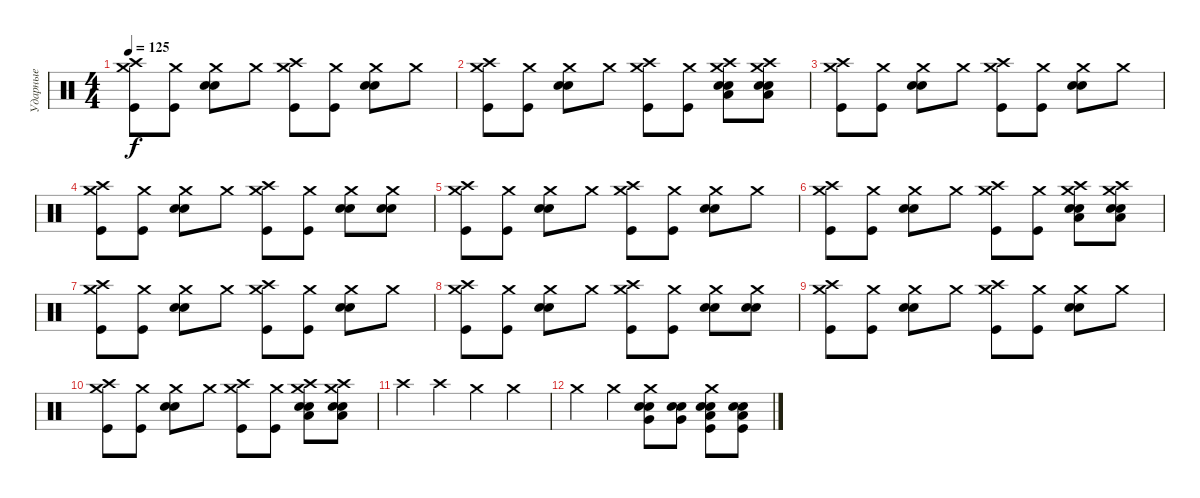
\track ("Ударные" "Ударные") {instrument percussion}
\staff {score}
\articulation defaults
\ts (4 4)
\tempo 125
\clef neutral
\ks c
("Crash medium (hit)" "Crash high (hit)" "Kick (hit)").8{dy f} ("Crash medium (hit)" "Kick (hit)").8 ("Crash medium (hit)" "Snare (hit) 2" "Snare (hit) 2").8 "Crash medium (hit)".8 ("Crash medium (hit)" "Crash high (hit)" "Kick (hit)").8 ("Crash medium (hit)" "Kick (hit)").8 ("Crash medium (hit)" "Snare (hit) 2" "Snare (hit) 2").8 "Crash medium (hit)".8 |
("Crash medium (hit)" "Crash high (hit)" "Kick (hit)").8 ("Crash medium (hit)" "Kick (hit)").8 ("Crash medium (hit)" "Snare (hit) 2" "Snare (hit) 2").8 "Crash medium (hit)".8 ("Crash medium (hit)" "Crash high (hit)" "Kick (hit)").8 ("Crash medium (hit)" "Kick (hit)").8 ("Crash medium (hit)" "Crash high (hit)" "Low Floor Tom (hit)" "Snare (hit) 2" "Snare (hit) 2").8 ("Crash medium (hit)" "Crash high (hit)" "Low Floor Tom (hit)" "Snare (hit) 2" "Snare (hit) 2").8 |
("Crash medium (hit)" "Crash high (hit)" "Kick (hit)").8 ("Crash medium (hit)" "Kick (hit)").8 ("Crash medium (hit)" "Snare (hit) 2" "Snare (hit) 2").8 "Crash medium (hit)".8 ("Crash medium (hit)" "Crash high (hit)" "Kick (hit)").8 ("Crash medium (hit)" "Kick (hit)").8 ("Crash medium (hit)" "Snare (hit) 2" "Snare (hit) 2").8 "Crash medium (hit)".8 |
("Crash medium (hit)" "Crash high (hit)" "Kick (hit)").8 ("Crash medium (hit)" "Kick (hit)").8 ("Crash medium (hit)" "Snare (hit) 2" "Snare (hit) 2").8 "Crash medium (hit)".8 ("Crash medium (hit)" "Crash high (hit)" "Kick (hit)").8 ("Crash medium (hit)" "Kick (hit)").8 ("Crash medium (hit)" "Snare (hit) 2" "Snare (hit) 2").8 ("Crash medium (hit)" "Snare (hit) 2" "Snare (hit) 2").8 |
("Crash medium (hit)" "Crash high (hit)" "Kick (hit)").8 ("Crash medium (hit)" "Kick (hit)").8 ("Crash medium (hit)" "Snare (hit) 2" "Snare (hit) 2").8 "Crash medium (hit)".8 ("Crash medium (hit)" "Crash high (hit)" "Kick (hit)").8 ("Crash medium (hit)" "Kick (hit)").8 ("Crash medium (hit)" "Snare (hit) 2" "Snare (hit) 2").8 "Crash medium (hit)".8 |
("Crash medium (hit)" "Crash high (hit)" "Kick (hit)").8 ("Crash medium (hit)" "Kick (hit)").8 ("Crash medium (hit)" "Snare (hit) 2" "Snare (hit) 2").8 "Crash medium (hit)".8 ("Crash medium (hit)" "Crash high (hit)" "Kick (hit)").8 ("Crash medium (hit)" "Kick (hit)").8 ("Crash medium (hit)" "Crash high (hit)" "Low Floor Tom (hit)" "Snare (hit) 2" "Snare (hit) 2").8 ("Crash medium (hit)" "Crash high (hit)" "Low Floor Tom (hit)" "Snare (hit) 2" "Snare (hit) 2").8 |
("Crash medium (hit)" "Crash high (hit)" "Kick (hit)").8 ("Crash medium (hit)" "Kick (hit)").8 ("Crash medium (hit)" "Snare (hit) 2" "Snare (hit) 2").8 "Crash medium (hit)".8 ("Crash medium (hit)" "Crash high (hit)" "Kick (hit)").8 ("Crash medium (hit)" "Kick (hit)").8 ("Crash medium (hit)" "Snare (hit) 2" "Snare (hit) 2").8 "Crash medium (hit)".8 |
("Crash medium (hit)" "Crash high (hit)" "Kick (hit)").8 ("Crash medium (hit)" "Kick (hit)").8 ("Crash medium (hit)" "Snare (hit) 2" "Snare (hit) 2").8 "Crash medium (hit)".8 ("Crash medium (hit)" "Crash high (hit)" "Kick (hit)").8 ("Crash medium (hit)" "Kick (hit)").8 ("Crash medium (hit)" "Snare (hit) 2" "Snare (hit) 2").8 ("Crash medium (hit)" "Snare (hit) 2" "Snare (hit) 2").8 |
("Crash medium (hit)" "Crash high (hit)" "Kick (hit)").8 ("Crash medium (hit)" "Kick (hit)").8 ("Crash medium (hit)" "Snare (hit) 2" "Snare (hit) 2").8 "Crash medium (hit)".8 ("Crash medium (hit)" "Crash high (hit)" "Kick (hit)").8 ("Crash medium (hit)" "Kick (hit)").8 ("Crash medium (hit)" "Snare (hit) 2" "Snare (hit) 2").8 "Crash medium (hit)".8 |
("Crash medium (hit)" "Crash high (hit)" "Kick (hit)").8 ("Crash medium (hit)" "Kick (hit)").8 ("Crash medium (hit)" "Snare (hit) 2" "Snare (hit) 2").8 "Crash medium (hit)".8 ("Crash medium (hit)" "Crash high (hit)" "Kick (hit)").8 ("Crash medium (hit)" "Kick (hit)").8 ("Crash medium (hit)" "Crash high (hit)" "Low Floor Tom (hit)" "Snare (hit) 2" "Snare (hit) 2").8 ("Crash medium (hit)" "Crash high (hit)" "Low Floor Tom (hit)" "Snare (hit) 2" "Snare (hit) 2").8 |
"Crash high (hit)".4 "Crash high (hit)".4 "Crash medium (hit)".4 "Crash medium (hit)".4 |
"Crash medium (hit)".4 "Crash medium (hit)".4 ("Crash medium (hit)" "Snare (hit) 2" "Snare (hit) 2" "Very Low Tom (hit)").8 ("Electric Snare (hit)" "Electric Snare (hit)" "Very Low Tom (hit)").8 ("Crash medium (hit)" "Snare (hit) 2" "Snare (hit) 2" "Low Floor Tom (hit)" "Kick (hit)").8 ("Electric Snare (hit)" "Electric Snare (hit)" "Low Floor Tom (hit)" "Kick (hit)").8
